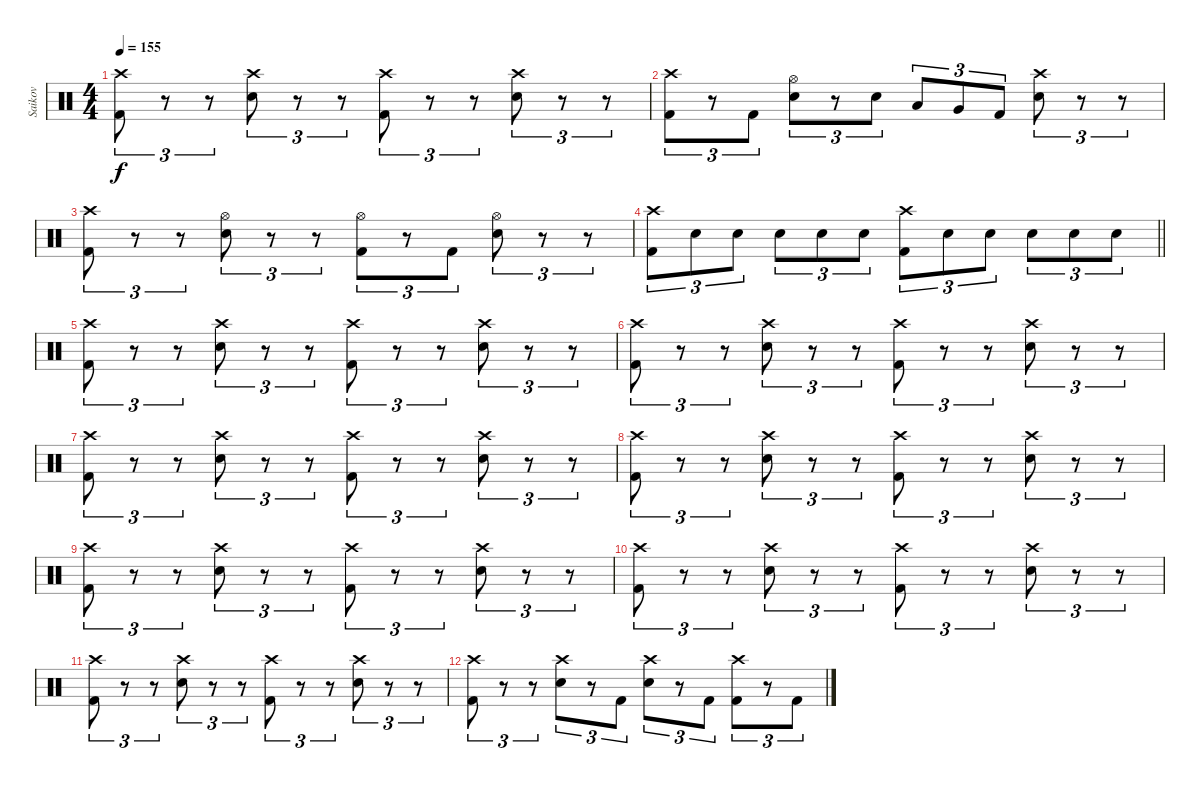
\track ("Saikov" "Saikov") {instrument percussion}
\staff {score}
\articulation defaults
\ts (4 4)
\tempo 155
\clef neutral
\ks c
("Crash high (hit)" "Kick (hit) 2").8{tu (3 2) dy f} r.8{tu (3 2)} r.8{tu (3 2)} ("Crash high (hit)" "Snare (hit) 2").8{tu (3 2)} r.8{tu (3 2)} r.8{tu (3 2)} ("Crash high (hit)" "Kick (hit) 2").8{tu (3 2)} r.8{tu (3 2)} r.8{tu (3 2)} ("Crash high (hit)" "Snare (hit) 2").8{tu (3 2)} r.8{tu (3 2)} r.8{tu (3 2)} |
("Crash high (hit)" "Kick (hit) 2").8{tu (3 2)} r.8{tu (3 2)} "Kick (hit) 2".8{tu (3 2)} ("Hi-Hat (open)" "Snare (hit) 2").8{tu (3 2)} r.8{tu (3 2)} "Snare (hit) 2".8{tu (3 2)} "Low Tom (hit)".8{tu (3 2)} "Very Low Tom (hit)".8{tu (3 2)} "Kick (hit) 2".8{tu (3 2)} ("Crash high (hit)" "Snare (hit) 2").8{tu (3 2)} r.8{tu (3 2)} r.8{tu (3 2)} |
("Crash high (hit)" "Kick (hit) 2").8{tu (3 2)} r.8{tu (3 2)} r.8{tu (3 2)} ("Hi-Hat (open)" "Snare (hit) 2").8{tu (3 2)} r.8{tu (3 2)} r.8{tu (3 2)} ("Hi-Hat (open)" "Kick (hit) 2").8{tu (3 2)} r.8{tu (3 2)} "Kick (hit) 2".8{tu (3 2)} ("Hi-Hat (open)" "Snare (hit) 2").8{tu (3 2)} r.8{tu (3 2)} r.8{tu (3 2)} |
\barLineRight lightlight
("Crash high (hit)" "Kick (hit) 2").8{tu (3 2)} "Snare (hit) 2".8{tu (3 2)} "Snare (hit) 2".8{tu (3 2)} "Snare (hit) 2".8{tu (3 2)} "Snare (hit) 2".8{tu (3 2)} "Snare (hit) 2".8{tu (3 2)} ("Crash high (hit)" "Kick (hit) 2").8{tu (3 2)} "Snare (hit) 2".8{tu (3 2)} "Snare (hit) 2".8{tu (3 2)} "Snare (hit) 2".8{tu (3 2)} "Snare (hit) 2".8{tu (3 2)} "Snare (hit) 2".8{tu (3 2)} |
("Crash high (hit)" "Kick (hit) 2").8{tu (3 2)} r.8{tu (3 2)} r.8{tu (3 2)} ("Crash high (hit)" "Snare (hit) 2").8{tu (3 2)} r.8{tu (3 2)} r.8{tu (3 2)} ("Crash high (hit)" "Kick (hit) 2").8{tu (3 2)} r.8{tu (3 2)} r.8{tu (3 2)} ("Crash high (hit)" "Snare (hit) 2").8{tu (3 2)} r.8{tu (3 2)} r.8{tu (3 2)} |
("Crash high (hit)" "Kick (hit) 2").8{tu (3 2)} r.8{tu (3 2)} r.8{tu (3 2)} ("Crash high (hit)" "Snare (hit) 2").8{tu (3 2)} r.8{tu (3 2)} r.8{tu (3 2)} ("Crash high (hit)" "Kick (hit) 2").8{tu (3 2)} r.8{tu (3 2)} r.8{tu (3 2)} ("Crash high (hit)" "Snare (hit) 2").8{tu (3 2)} r.8{tu (3 2)} r.8{tu (3 2)} |
("Crash high (hit)" "Kick (hit) 2").8{tu (3 2)} r.8{tu (3 2)} r.8{tu (3 2)} ("Crash high (hit)" "Snare (hit) 2").8{tu (3 2)} r.8{tu (3 2)} r.8{tu (3 2)} ("Crash high (hit)" "Kick (hit) 2").8{tu (3 2)} r.8{tu (3 2)} r.8{tu (3 2)} ("Crash high (hit)" "Snare (hit) 2").8{tu (3 2)} r.8{tu (3 2)} r.8{tu (3 2)} |
("Crash high (hit)" "Kick (hit) 2").8{tu (3 2)} r.8{tu (3 2)} r.8{tu (3 2)} ("Crash high (hit)" "Snare (hit) 2").8{tu (3 2)} r.8{tu (3 2)} r.8{tu (3 2)} ("Crash high (hit)" "Kick (hit) 2").8{tu (3 2)} r.8{tu (3 2)} r.8{tu (3 2)} ("Crash high (hit)" "Snare (hit) 2").8{tu (3 2)} r.8{tu (3 2)} r.8{tu (3 2)} |
("Crash high (hit)" "Kick (hit) 2").8{tu (3 2)} r.8{tu (3 2)} r.8{tu (3 2)} ("Crash high (hit)" "Snare (hit) 2").8{tu (3 2)} r.8{tu (3 2)} r.8{tu (3 2)} ("Crash high (hit)" "Kick (hit) 2").8{tu (3 2)} r.8{tu (3 2)} r.8{tu (3 2)} ("Crash high (hit)" "Snare (hit) 2").8{tu (3 2)} r.8{tu (3 2)} r.8{tu (3 2)} |
("Crash high (hit)" "Kick (hit) 2").8{tu (3 2)} r.8{tu (3 2)} r.8{tu (3 2)} ("Crash high (hit)" "Snare (hit) 2").8{tu (3 2)} r.8{tu (3 2)} r.8{tu (3 2)} ("Crash high (hit)" "Kick (hit) 2").8{tu (3 2)} r.8{tu (3 2)} r.8{tu (3 2)} ("Crash high (hit)" "Snare (hit) 2").8{tu (3 2)} r.8{tu (3 2)} r.8{tu (3 2)} |
("Crash high (hit)" "Kick (hit) 2").8{tu (3 2)} r.8{tu (3 2)} r.8{tu (3 2)} ("Crash high (hit)" "Snare (hit) 2").8{tu (3 2)} r.8{tu (3 2)} r.8{tu (3 2)} ("Crash high (hit)" "Kick (hit) 2").8{tu (3 2)} r.8{tu (3 2)} r.8{tu (3 2)} ("Crash high (hit)" "Snare (hit) 2").8{tu (3 2)} r.8{tu (3 2)} r.8{tu (3 2)} |
("Crash high (hit)" "Kick (hit) 2").8{tu (3 2)} r.8{tu (3 2)} r.8{tu (3 2)} ("Crash high (hit)" "Snare (hit) 2").8{tu (3 2)} r.8{tu (3 2)} "Kick (hit) 2".8{tu (3 2)} ("Crash high (hit)" "Snare (hit) 2").8{tu (3 2)} r.8{tu (3 2)} "Kick (hit) 2".8{tu (3 2)} ("Crash high (hit)" "Kick (hit) 2").8{tu (3 2)} r.8{tu (3 2)} "Kick (hit) 2".8{tu (3 2)}
